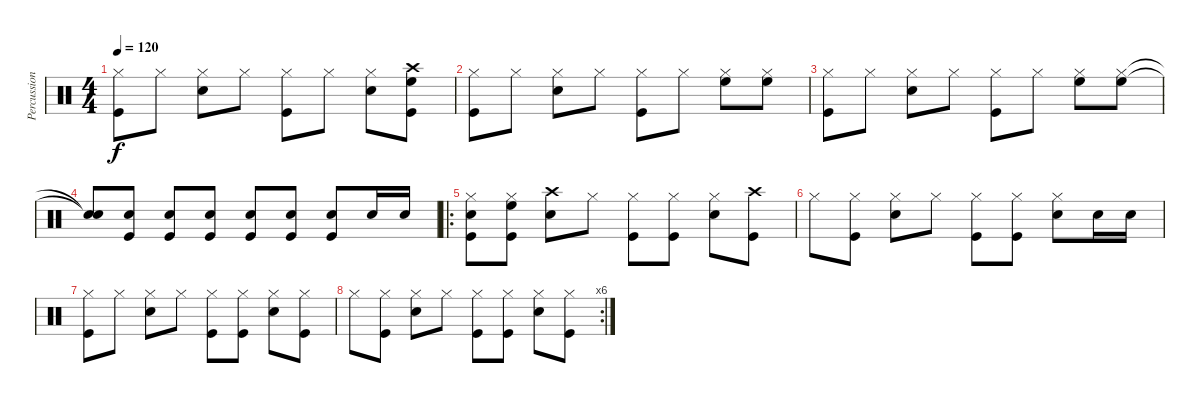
\track ("Percussion" "Percussion") {instrument percussion}
\staff {score}
\articulation defaults
\ts (4 4)
\tempo 120
\clef neutral
\ks c
("Hi-Hat (closed)" "Kick (hit)").8{dy f} "Hi-Hat (closed)".8 ("Hi-Hat (closed)" "Snare (hit) 2").8 "Hi-Hat (closed)".8 ("Hi-Hat (closed)" "Kick (hit)").8 "Hi-Hat (closed)".8 ("Hi-Hat (closed)" "Snare (hit) 2").8 ("Crash high (hit)" "High Floor Tom (hit)" "Kick (hit)").8 |
("Hi-Hat (closed)" "Kick (hit)").8 "Hi-Hat (closed)".8 ("Hi-Hat (closed)" "Snare (hit) 2").8 "Hi-Hat (closed)".8 ("Hi-Hat (closed)" "Kick (hit)").8 "Hi-Hat (closed)".8 ("Hi-Hat (closed)" "High Floor Tom (hit)").8 ("Hi-Hat (closed)" "High Floor Tom (hit)").8 |
("Hi-Hat (closed)" "Kick (hit)").8 "Hi-Hat (closed)".8 ("Hi-Hat (closed)" "Snare (hit) 2").8 "Hi-Hat (closed)".8 ("Hi-Hat (closed)" "Kick (hit)").8 "Hi-Hat (closed)".8 ("Hi-Hat (closed)" "High Floor Tom (hit)").8 ("Hi-Hat (closed)" "High Floor Tom (hit)").8 |
("Snare (hit)"{t} "Snare (hit)"{t}).8 ("Snare (hit) 2" "Kick (hit)").8 ("Snare (hit) 2" "Kick (hit)").8 ("Snare (hit) 2" "Kick (hit)").8 ("Snare (hit) 2" "Kick (hit)").8 ("Snare (hit) 2" "Kick (hit)").8 ("Snare (hit) 2" "Kick (hit)").8 "Snare (hit) 2".16 "Snare (hit) 2".16 |
\ro
("Hi-Hat (closed)" "Snare (hit) 2" "Kick (hit)").8 ("Hi-Hat (closed)" "High Floor Tom (hit)" "Kick (hit)").8 ("Crash high (hit)" "Snare (hit) 2").8 "Hi-Hat (closed)".8 ("Hi-Hat (closed)" "Kick (hit)").8 ("Hi-Hat (closed)" "Kick (hit)").8 ("Hi-Hat (closed)" "Snare (hit) 2").8 ("Crash high (hit)" "Kick (hit)").8 |
"Hi-Hat (closed)".8 ("Hi-Hat (closed)" "Kick (hit)").8 ("Hi-Hat (closed)" "Snare (hit) 2").8 "Hi-Hat (closed)".8 ("Hi-Hat (closed)" "Kick (hit)").8 ("Hi-Hat (closed)" "Kick (hit)").8 ("Hi-Hat (closed)" "Snare (hit) 2").8 "Snare (hit) 2".16 "Snare (hit) 2".16 |
("Hi-Hat (closed)" "Kick (hit)").8 "Hi-Hat (closed)".8 ("Hi-Hat (closed)" "Snare (hit) 2").8 "Hi-Hat (closed)".8 ("Hi-Hat (closed)" "Kick (hit)").8 ("Hi-Hat (closed)" "Kick (hit)").8 ("Hi-Hat (closed)" "Snare (hit) 2").8 ("Hi-Hat (closed)" "Kick (hit)").8 |
\rc 6 "Hi-Hat (closed)".8
("Hi-Hat (closed)" "Kick (hit)").8 ("Hi-Hat (closed)" "Snare (hit) 2").8 "Hi-Hat (closed)".8 ("Hi-Hat (closed)" "Kick (hit)").8 ("Hi-Hat (closed)" "Kick (hit)").8 ("Hi-Hat (closed)" "Snare (hit) 2").8 ("Hi-Hat (closed)" "Kick (hit)").8
